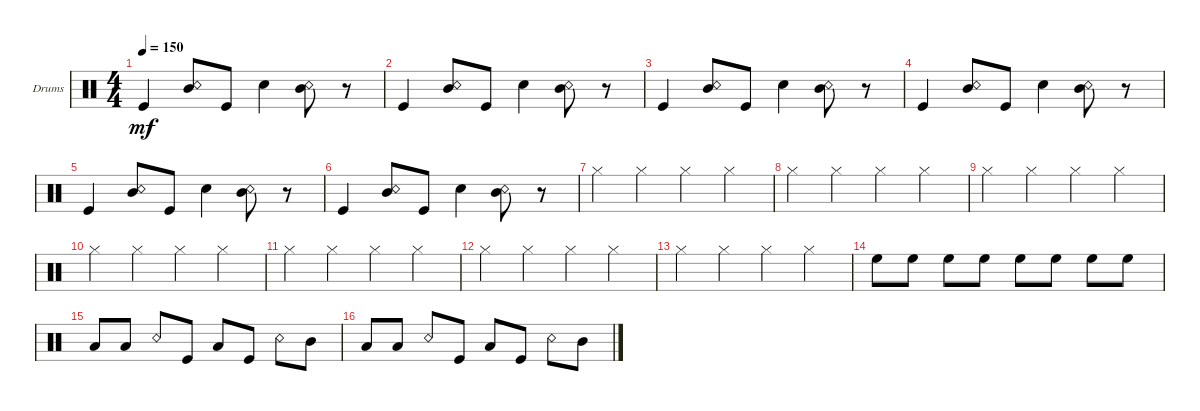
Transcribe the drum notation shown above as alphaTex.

\defaultSystemsLayout 4
\bracketExtendMode groupsimilarinstruments
\firstSystemTrackNameOrientation horizontal
\otherSystemsTrackNameOrientation horizontal
\track ("Drumkit" "Drums") {instrument percussion}
\staff {score}
\articulation defaults
\ts (4 4)
\tempo 150
\clef neutral
\ks c "Kick (hit)".4{dy mf}
("Mid Tom (hit)" "Snare (rim shot)").8 "Kick (hit)".8 "Snare (hit) 2".4 ("Mid Tom (hit)" "Snare (rim shot)").8 r.8 |
"Kick (hit)".4 ("Mid Tom (hit)" "Snare (rim shot)").8 "Kick (hit)".8 "Snare (hit) 2".4 ("Mid Tom (hit)" "Snare (rim shot)").8 r.8 |
"Kick (hit)".4 ("Mid Tom (hit)" "Snare (rim shot)").8 "Kick (hit)".8 "Snare (hit) 2".4 ("Mid Tom (hit)" "Snare (rim shot)").8 r.8 |
"Kick (hit)".4 ("Mid Tom (hit)" "Snare (rim shot)").8 "Kick (hit)".8 "Snare (hit) 2".4 ("Mid Tom (hit)" "Snare (rim shot)").8 r.8 |
"Kick (hit)".4 ("Mid Tom (hit)" "Snare (rim shot)").8 "Kick (hit)".8 "Snare (hit) 2".4 ("Mid Tom (hit)" "Snare (rim shot)").8 r.8 |
"Kick (hit)".4 ("Mid Tom (hit)" "Snare (rim shot)").8 "Kick (hit)".8 "Snare (hit) 2".4 ("Mid Tom (hit)" "Snare (rim shot)").8 r.8 |
"Hi-Hat (closed)".4 "Hi-Hat (closed)".4 "Hi-Hat (closed)".4 "Hi-Hat (closed)".4 |
"Hi-Hat (closed)".4 "Hi-Hat (closed)".4 "Hi-Hat (closed)".4 "Hi-Hat (closed)".4 |
"Hi-Hat (closed)".4 "Hi-Hat (closed)".4 "Hi-Hat (closed)".4 "Hi-Hat (closed)".4 |
"Hi-Hat (closed)".4 "Hi-Hat (closed)".4 "Hi-Hat (closed)".4 "Hi-Hat (closed)".4 |
"Hi-Hat (closed)".4 "Hi-Hat (closed)".4 "Hi-Hat (closed)".4 "Hi-Hat (closed)".4 |
"Hi-Hat (closed)".4 "Hi-Hat (closed)".4 "Hi-Hat (closed)".4 "Hi-Hat (closed)".4 |
"Hi-Hat (closed)".4 "Hi-Hat (closed)".4 "Hi-Hat (closed)".4 "Hi-Hat (closed)".4 |
"High Floor Tom (hit)".8 "High Floor Tom (hit)".8 "High Floor Tom (hit)".8 "High Floor Tom (hit)".8 "High Floor Tom (hit)".8 "High Floor Tom (hit)".8 "High Floor Tom (hit)".8 "High Floor Tom (hit)".8 |
"Low Tom (hit)".8 "Low Tom (hit)".8 "Snare (rim shot)".8 "Kick (hit)".8 "Low Tom (hit)".8 "Kick (hit)".8 "Snare (rim shot)".8 "Mid Tom (hit)".8 |
"Low Tom (hit)".8 "Low Tom (hit)".8 "Snare (rim shot)".8 "Kick (hit)".8 "Low Tom (hit)".8 "Kick (hit)".8 "Snare (rim shot)".8 "Mid Tom (hit)".8
